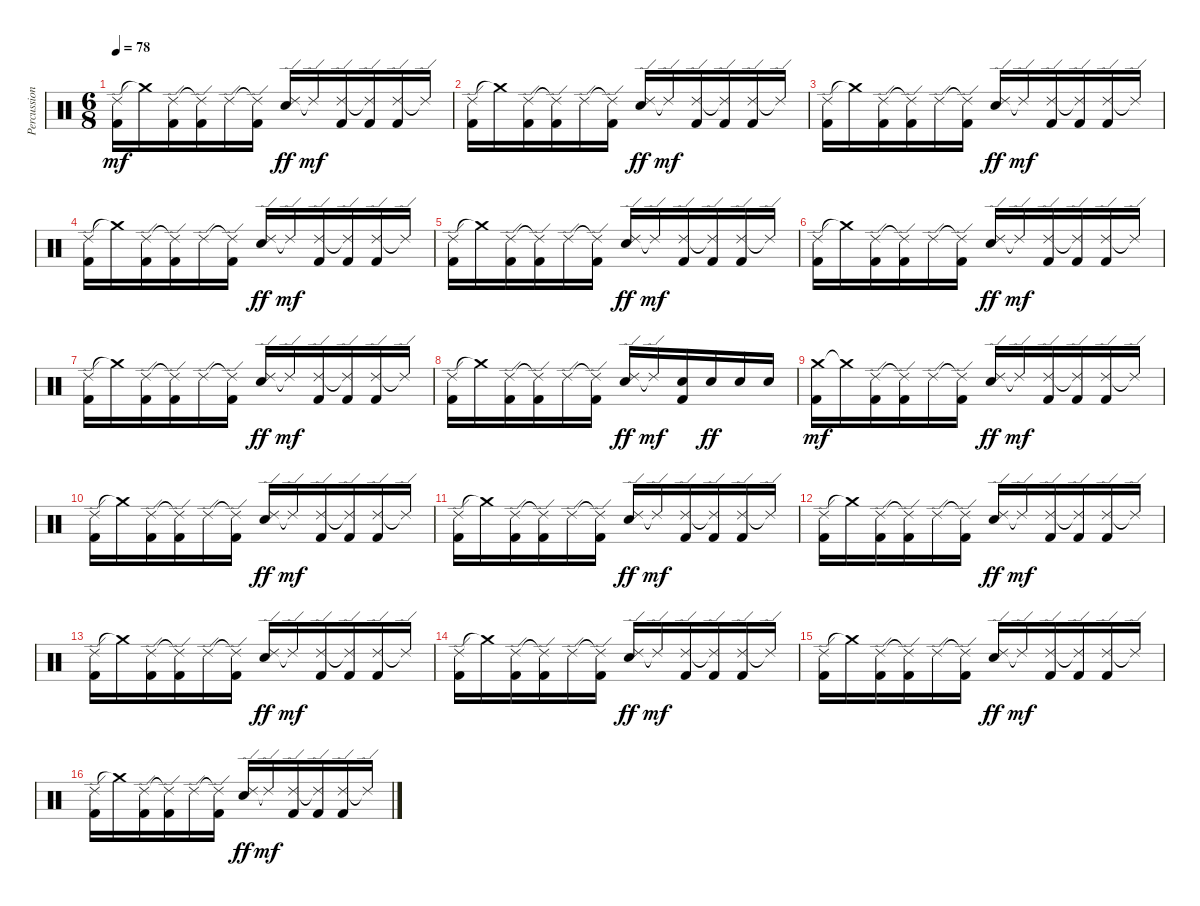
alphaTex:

\track ("Percussion" "Percussion") {instrument percussion}
\staff {score}
\articulation defaults
\ts (6 8)
\tempo 78
\clef neutral
\ks c
("Ride (edge) 2" "Kick (hit) 2").16{dy mf} "Crash medium (hit)"{t}.16 ("Ride (edge) 2" "Kick (hit) 2").16 ("Ride (edge) 2"{t} "Kick (hit) 2").16 "Ride (edge) 2".16 ("Ride (edge) 2"{t} "Kick (hit) 2").16 ("Ride (edge) 2" "Electric Snare (hit)").16{dy ff} "Ride (edge) 2"{t}.16{dy mf} ("Ride (edge) 2" "Kick (hit) 2").16 ("Ride (edge) 2"{t} "Kick (hit) 2").16 ("Ride (edge) 2" "Kick (hit) 2").16 "Ride (edge) 2"{t}.16 |
("Ride (edge) 2" "Kick (hit) 2").16 "Crash medium (hit)"{t}.16 ("Ride (edge) 2" "Kick (hit) 2").16 ("Ride (edge) 2"{t} "Kick (hit) 2").16 "Ride (edge) 2".16 ("Ride (edge) 2"{t} "Kick (hit) 2").16 ("Ride (edge) 2" "Electric Snare (hit)").16{dy ff} "Ride (edge) 2"{t}.16{dy mf} ("Ride (edge) 2" "Kick (hit) 2").16 ("Ride (edge) 2"{t} "Kick (hit) 2").16 ("Ride (edge) 2" "Kick (hit) 2").16 "Ride (edge) 2"{t}.16 |
("Ride (edge) 2" "Kick (hit) 2").16 "Crash medium (hit)"{t}.16 ("Ride (edge) 2" "Kick (hit) 2").16 ("Ride (edge) 2"{t} "Kick (hit) 2").16 "Ride (edge) 2".16 ("Ride (edge) 2"{t} "Kick (hit) 2").16 ("Ride (edge) 2" "Electric Snare (hit)").16{dy ff} "Ride (edge) 2"{t}.16{dy mf} ("Ride (edge) 2" "Kick (hit) 2").16 ("Ride (edge) 2"{t} "Kick (hit) 2").16 ("Ride (edge) 2" "Kick (hit) 2").16 "Ride (edge) 2"{t}.16 |
("Ride (edge) 2" "Kick (hit) 2").16 "Crash medium (hit)"{t}.16 ("Ride (edge) 2" "Kick (hit) 2").16 ("Ride (edge) 2"{t} "Kick (hit) 2").16 "Ride (edge) 2".16 ("Ride (edge) 2"{t} "Kick (hit) 2").16 ("Ride (edge) 2" "Electric Snare (hit)").16{dy ff} "Ride (edge) 2"{t}.16{dy mf} ("Ride (edge) 2" "Kick (hit) 2").16 ("Ride (edge) 2"{t} "Kick (hit) 2").16 ("Ride (edge) 2" "Kick (hit) 2").16 "Ride (edge) 2"{t}.16 |
("Ride (edge) 2" "Kick (hit) 2").16 "Crash medium (hit)"{t}.16 ("Ride (edge) 2" "Kick (hit) 2").16 ("Ride (edge) 2"{t} "Kick (hit) 2").16 "Ride (edge) 2".16 ("Ride (edge) 2"{t} "Kick (hit) 2").16 ("Ride (edge) 2" "Electric Snare (hit)").16{dy ff} "Ride (edge) 2"{t}.16{dy mf} ("Ride (edge) 2" "Kick (hit) 2").16 ("Ride (edge) 2"{t} "Kick (hit) 2").16 ("Ride (edge) 2" "Kick (hit) 2").16 "Ride (edge) 2"{t}.16 |
("Ride (edge) 2" "Kick (hit) 2").16 "Crash medium (hit)"{t}.16 ("Ride (edge) 2" "Kick (hit) 2").16 ("Ride (edge) 2"{t} "Kick (hit) 2").16 "Ride (edge) 2".16 ("Ride (edge) 2"{t} "Kick (hit) 2").16 ("Ride (edge) 2" "Electric Snare (hit)").16{dy ff} "Ride (edge) 2"{t}.16{dy mf} ("Ride (edge) 2" "Kick (hit) 2").16 ("Ride (edge) 2"{t} "Kick (hit) 2").16 ("Ride (edge) 2" "Kick (hit) 2").16 "Ride (edge) 2"{t}.16 |
("Ride (edge) 2" "Kick (hit) 2").16 "Crash medium (hit)"{t}.16 ("Ride (edge) 2" "Kick (hit) 2").16 ("Ride (edge) 2"{t} "Kick (hit) 2").16 "Ride (edge) 2".16 ("Ride (edge) 2"{t} "Kick (hit) 2").16 ("Ride (edge) 2" "Electric Snare (hit)").16{dy ff} "Ride (edge) 2"{t}.16{dy mf} ("Ride (edge) 2" "Kick (hit) 2").16 ("Ride (edge) 2"{t} "Kick (hit) 2").16 ("Ride (edge) 2" "Kick (hit) 2").16 "Ride (edge) 2"{t}.16 |
("Ride (edge) 2" "Kick (hit) 2").16 "Crash medium (hit)"{t}.16 ("Ride (edge) 2" "Kick (hit) 2").16 ("Ride (edge) 2"{t} "Kick (hit) 2").16 "Ride (edge) 2".16 ("Ride (edge) 2"{t} "Kick (hit) 2").16 ("Ride (edge) 2" "Electric Snare (hit)").16{dy ff} "Ride (edge) 2"{t}.16{dy mf} ("Electric Snare (hit)" "Kick (hit) 2").16 "Electric Snare (hit)".16{dy ff} "Electric Snare (hit)".16 "Electric Snare (hit)".16 |
("Crash medium (hit)" "Kick (hit) 2").16{dy mf} "Crash medium (hit)"{t}.16 ("Ride (edge) 2" "Kick (hit) 2").16 ("Ride (edge) 2"{t} "Kick (hit) 2").16 "Ride (edge) 2".16 ("Ride (edge) 2"{t} "Kick (hit) 2").16 ("Ride (edge) 2" "Electric Snare (hit)").16{dy ff} "Ride (edge) 2"{t}.16{dy mf} ("Ride (edge) 2" "Kick (hit) 2").16 ("Ride (edge) 2"{t} "Kick (hit) 2").16 ("Ride (edge) 2" "Kick (hit) 2").16 "Ride (edge) 2"{t}.16 |
("Ride (edge) 2" "Kick (hit) 2").16 "Crash medium (hit)"{t}.16 ("Ride (edge) 2" "Kick (hit) 2").16 ("Ride (edge) 2"{t} "Kick (hit) 2").16 "Ride (edge) 2".16 ("Ride (edge) 2"{t} "Kick (hit) 2").16 ("Ride (edge) 2" "Electric Snare (hit)").16{dy ff} "Ride (edge) 2"{t}.16{dy mf} ("Ride (edge) 2" "Kick (hit) 2").16 ("Ride (edge) 2"{t} "Kick (hit) 2").16 ("Ride (edge) 2" "Kick (hit) 2").16 "Ride (edge) 2"{t}.16 |
("Ride (edge) 2" "Kick (hit) 2").16 "Crash medium (hit)"{t}.16 ("Ride (edge) 2" "Kick (hit) 2").16 ("Ride (edge) 2"{t} "Kick (hit) 2").16 "Ride (edge) 2".16 ("Ride (edge) 2"{t} "Kick (hit) 2").16 ("Ride (edge) 2" "Electric Snare (hit)").16{dy ff} "Ride (edge) 2"{t}.16{dy mf} ("Ride (edge) 2" "Kick (hit) 2").16 ("Ride (edge) 2"{t} "Kick (hit) 2").16 ("Ride (edge) 2" "Kick (hit) 2").16 "Ride (edge) 2"{t}.16 |
("Ride (edge) 2" "Kick (hit) 2").16 "Crash medium (hit)"{t}.16 ("Ride (edge) 2" "Kick (hit) 2").16 ("Ride (edge) 2"{t} "Kick (hit) 2").16 "Ride (edge) 2".16 ("Ride (edge) 2"{t} "Kick (hit) 2").16 ("Ride (edge) 2" "Electric Snare (hit)").16{dy ff} "Ride (edge) 2"{t}.16{dy mf} ("Ride (edge) 2" "Kick (hit) 2").16 ("Ride (edge) 2"{t} "Kick (hit) 2").16 ("Ride (edge) 2" "Kick (hit) 2").16 "Ride (edge) 2"{t}.16 |
("Ride (edge) 2" "Kick (hit) 2").16 "Crash medium (hit)"{t}.16 ("Ride (edge) 2" "Kick (hit) 2").16 ("Ride (edge) 2"{t} "Kick (hit) 2").16 "Ride (edge) 2".16 ("Ride (edge) 2"{t} "Kick (hit) 2").16 ("Ride (edge) 2" "Electric Snare (hit)").16{dy ff} "Ride (edge) 2"{t}.16{dy mf} ("Ride (edge) 2" "Kick (hit) 2").16 ("Ride (edge) 2"{t} "Kick (hit) 2").16 ("Ride (edge) 2" "Kick (hit) 2").16 "Ride (edge) 2"{t}.16 |
("Ride (edge) 2" "Kick (hit) 2").16 "Crash medium (hit)"{t}.16 ("Ride (edge) 2" "Kick (hit) 2").16 ("Ride (edge) 2"{t} "Kick (hit) 2").16 "Ride (edge) 2".16 ("Ride (edge) 2"{t} "Kick (hit) 2").16 ("Ride (edge) 2" "Electric Snare (hit)").16{dy ff} "Ride (edge) 2"{t}.16{dy mf} ("Ride (edge) 2" "Kick (hit) 2").16 ("Ride (edge) 2"{t} "Kick (hit) 2").16 ("Ride (edge) 2" "Kick (hit) 2").16 "Ride (edge) 2"{t}.16 |
("Ride (edge) 2" "Kick (hit) 2").16 "Crash medium (hit)"{t}.16 ("Ride (edge) 2" "Kick (hit) 2").16 ("Ride (edge) 2"{t} "Kick (hit) 2").16 "Ride (edge) 2".16 ("Ride (edge) 2"{t} "Kick (hit) 2").16 ("Ride (edge) 2" "Electric Snare (hit)").16{dy ff} "Ride (edge) 2"{t}.16{dy mf} ("Ride (edge) 2" "Kick (hit) 2").16 ("Ride (edge) 2"{t} "Kick (hit) 2").16 ("Ride (edge) 2" "Kick (hit) 2").16 "Ride (edge) 2"{t}.16 |
("Ride (edge) 2" "Kick (hit) 2").16 "Crash medium (hit)"{t}.16 ("Ride (edge) 2" "Kick (hit) 2").16 ("Ride (edge) 2"{t} "Kick (hit) 2").16 "Ride (edge) 2".16 ("Ride (edge) 2"{t} "Kick (hit) 2").16 ("Ride (edge) 2" "Electric Snare (hit)").16{dy ff} "Ride (edge) 2"{t}.16{dy mf} ("Ride (edge) 2" "Kick (hit) 2").16 ("Ride (edge) 2"{t} "Kick (hit) 2").16 ("Ride (edge) 2" "Kick (hit) 2").16 "Ride (edge) 2"{t}.16
